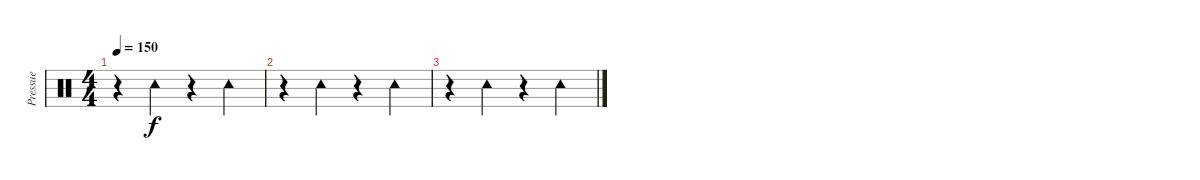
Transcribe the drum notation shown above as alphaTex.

\track ("Pressue" "Pressue") {instrument percussion}
\staff {score}
\articulation defaults
\ts (4 4)
\tempo 150
\clef neutral
\ks c
r.4{dy f} "Tambourine (hit)".4 r.4 "Tambourine (hit)".4 |
r.4 "Tambourine (hit)".4 r.4 "Tambourine (hit)".4 |
r.4 "Tambourine (hit)".4 r.4 "Tambourine (hit)".4
